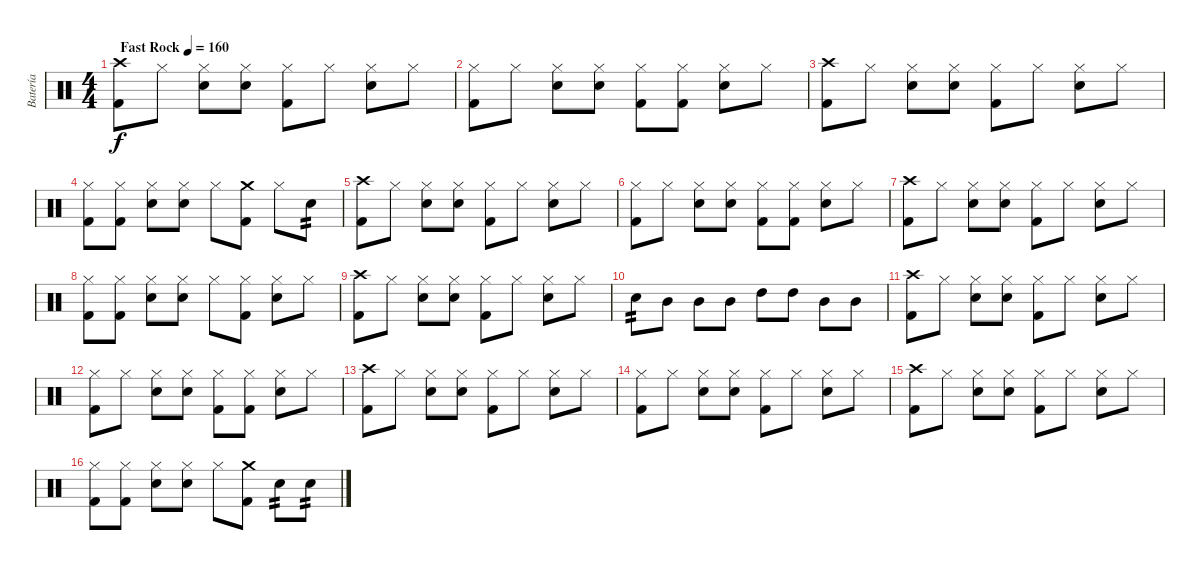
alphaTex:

\track ("Batería" "Batería") {instrument percussion}
\staff {score}
\articulation defaults
\ts (4 4)
\tempo (160 "Fast Rock")
\clef neutral
\ks c
("Crash high (hit)" "Kick (hit) 2").8{dy f} "Hi-Hat (closed)".8 ("Hi-Hat (closed)" "Electric Snare (hit)").8 ("Hi-Hat (closed)" "Electric Snare (hit)").8 ("Hi-Hat (closed)" "Kick (hit) 2").8 "Hi-Hat (closed)".8 ("Hi-Hat (closed)" "Electric Snare (hit)").8 "Hi-Hat (closed)".8 |
("Hi-Hat (closed)" "Kick (hit) 2").8 "Hi-Hat (closed)".8 ("Hi-Hat (closed)" "Electric Snare (hit)").8 ("Hi-Hat (closed)" "Electric Snare (hit)").8 ("Hi-Hat (closed)" "Kick (hit) 2").8 ("Hi-Hat (closed)" "Kick (hit) 2").8 ("Hi-Hat (closed)" "Electric Snare (hit)").8 "Hi-Hat (closed)".8 |
("Crash high (hit)" "Kick (hit) 2").8 "Hi-Hat (closed)".8 ("Hi-Hat (closed)" "Electric Snare (hit)").8 ("Hi-Hat (closed)" "Electric Snare (hit)").8 ("Hi-Hat (closed)" "Kick (hit) 2").8 "Hi-Hat (closed)".8 ("Hi-Hat (closed)" "Electric Snare (hit)").8 "Hi-Hat (closed)".8 |
("Hi-Hat (closed)" "Kick (hit) 2").8 ("Hi-Hat (closed)" "Kick (hit) 2").8 ("Hi-Hat (closed)" "Electric Snare (hit)").8 ("Hi-Hat (closed)" "Electric Snare (hit)").8 "Hi-Hat (closed)".8 ("Crash medium (hit)" "Kick (hit) 2").8 "Hi-Hat (closed)".8 "Electric Snare (hit)".8{tp 2} |
("Crash high (hit)" "Kick (hit) 2").8 "Hi-Hat (closed)".8 ("Hi-Hat (closed)" "Electric Snare (hit)").8 ("Hi-Hat (closed)" "Electric Snare (hit)").8 ("Hi-Hat (closed)" "Kick (hit) 2").8 "Hi-Hat (closed)".8 ("Hi-Hat (closed)" "Electric Snare (hit)").8 "Hi-Hat (closed)".8 |
("Hi-Hat (closed)" "Kick (hit) 2").8 "Hi-Hat (closed)".8 ("Hi-Hat (closed)" "Electric Snare (hit)").8 ("Hi-Hat (closed)" "Electric Snare (hit)").8 ("Hi-Hat (closed)" "Kick (hit) 2").8 ("Hi-Hat (closed)" "Kick (hit) 2").8 ("Hi-Hat (closed)" "Electric Snare (hit)").8 "Hi-Hat (closed)".8 |
("Crash high (hit)" "Kick (hit) 2").8 "Hi-Hat (closed)".8 ("Hi-Hat (closed)" "Electric Snare (hit)").8 ("Hi-Hat (closed)" "Electric Snare (hit)").8 ("Hi-Hat (closed)" "Kick (hit) 2").8 "Hi-Hat (closed)".8 ("Hi-Hat (closed)" "Electric Snare (hit)").8 "Hi-Hat (closed)".8 |
("Hi-Hat (closed)" "Kick (hit) 2").8 ("Hi-Hat (closed)" "Kick (hit) 2").8 ("Hi-Hat (closed)" "Electric Snare (hit)").8 ("Hi-Hat (closed)" "Electric Snare (hit)").8 "Hi-Hat (closed)".8 ("Hi-Hat (closed)" "Kick (hit) 2").8 ("Hi-Hat (closed)" "Electric Snare (hit)").8 "Hi-Hat (closed)".8 |
("Crash high (hit)" "Kick (hit) 2").8 "Hi-Hat (closed)".8 ("Hi-Hat (closed)" "Electric Snare (hit)").8 ("Hi-Hat (closed)" "Electric Snare (hit)").8 ("Hi-Hat (closed)" "Kick (hit) 2").8 "Hi-Hat (closed)".8 ("Hi-Hat (closed)" "Electric Snare (hit)").8 "Hi-Hat (closed)".8 |
"Electric Snare (hit)".8{tp 2} "Mid Tom (hit)".8 "Mid Tom (hit)".8 "Mid Tom (hit)".8 "High Tom (hit)".8 "High Tom (hit)".8 "Mid Tom (hit)".8 "Mid Tom (hit)".8 |
("Crash high (hit)" "Kick (hit) 2").8 "Hi-Hat (closed)".8 ("Hi-Hat (closed)" "Electric Snare (hit)").8 ("Hi-Hat (closed)" "Electric Snare (hit)").8 ("Hi-Hat (closed)" "Kick (hit) 2").8 "Hi-Hat (closed)".8 ("Hi-Hat (closed)" "Electric Snare (hit)").8 "Hi-Hat (closed)".8 |
("Hi-Hat (closed)" "Kick (hit) 2").8 "Hi-Hat (closed)".8 ("Hi-Hat (closed)" "Electric Snare (hit)").8 ("Hi-Hat (closed)" "Electric Snare (hit)").8 ("Hi-Hat (closed)" "Kick (hit) 2").8 ("Hi-Hat (closed)" "Kick (hit) 2").8 ("Hi-Hat (closed)" "Electric Snare (hit)").8 "Hi-Hat (closed)".8 |
("Crash high (hit)" "Kick (hit) 2").8 "Hi-Hat (closed)".8 ("Hi-Hat (closed)" "Electric Snare (hit)").8 ("Hi-Hat (closed)" "Electric Snare (hit)").8 ("Hi-Hat (closed)" "Kick (hit) 2").8 "Hi-Hat (closed)".8 ("Hi-Hat (closed)" "Electric Snare (hit)").8 "Hi-Hat (closed)".8 |
("Hi-Hat (closed)" "Kick (hit) 2").8 "Hi-Hat (closed)".8 ("Hi-Hat (closed)" "Electric Snare (hit)").8 ("Hi-Hat (closed)" "Electric Snare (hit)").8 ("Hi-Hat (closed)" "Kick (hit) 2").8 "Hi-Hat (closed)".8 ("Hi-Hat (closed)" "Electric Snare (hit)").8 "Hi-Hat (closed)".8 |
("Crash high (hit)" "Kick (hit) 2").8 "Hi-Hat (closed)".8 ("Hi-Hat (closed)" "Electric Snare (hit)").8 ("Hi-Hat (closed)" "Electric Snare (hit)").8 ("Hi-Hat (closed)" "Kick (hit) 2").8 "Hi-Hat (closed)".8 ("Hi-Hat (closed)" "Electric Snare (hit)").8 "Hi-Hat (closed)".8 |
("Hi-Hat (closed)" "Kick (hit) 2").8 ("Hi-Hat (closed)" "Kick (hit) 2").8 ("Hi-Hat (closed)" "Electric Snare (hit)").8 ("Hi-Hat (closed)" "Electric Snare (hit)").8 "Hi-Hat (closed)".8 ("Crash medium (hit)" "Kick (hit) 2").8 "Electric Snare (hit)".8{tp 2} "Electric Snare (hit)".8{tp 2}
